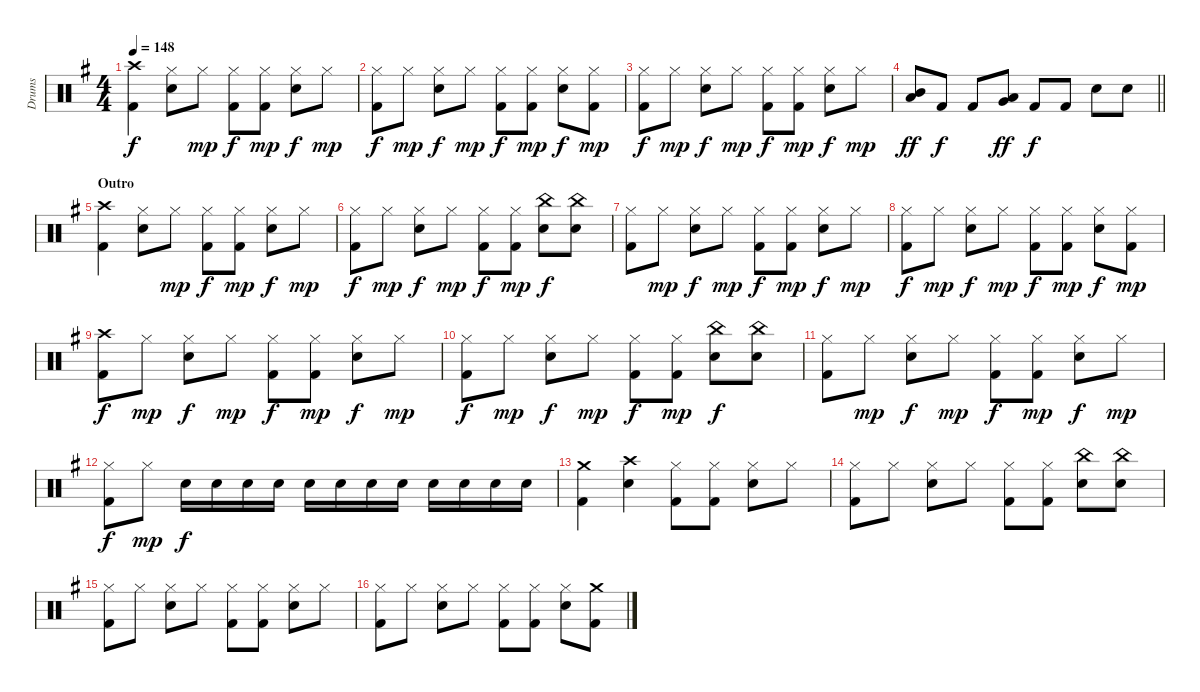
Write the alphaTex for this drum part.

\track ("Drums" "Drums") {instrument percussion}
\staff {score}
\articulation defaults
\ts (4 4)
\tempo 148
\clef neutral
\ks g
("Crash high (hit)" "Kick (hit) 2").4{dy f} ("Hi-Hat (closed)" "Electric Snare (hit)").8 "Hi-Hat (closed)".8{dy mp} ("Hi-Hat (closed)" "Kick (hit) 2").8{dy f} ("Hi-Hat (closed)" "Kick (hit) 2").8{dy mp} ("Hi-Hat (closed)" "Electric Snare (hit)").8{dy f} "Hi-Hat (closed)".8{dy mp} |
("Hi-Hat (closed)" "Kick (hit) 2").8{dy f} "Hi-Hat (closed)".8{dy mp} ("Hi-Hat (closed)" "Electric Snare (hit)").8{dy f} "Hi-Hat (closed)".8{dy mp} ("Hi-Hat (closed)" "Kick (hit) 2").8{dy f} ("Hi-Hat (closed)" "Kick (hit) 2").8{dy mp} ("Hi-Hat (closed)" "Electric Snare (hit)").8{dy f} ("Hi-Hat (closed)" "Kick (hit) 2").8{dy mp} |
("Hi-Hat (closed)" "Kick (hit) 2").8{dy f} "Hi-Hat (closed)".8{dy mp} ("Hi-Hat (closed)" "Electric Snare (hit)").8{dy f} "Hi-Hat (closed)".8{dy mp} ("Hi-Hat (closed)" "Kick (hit) 2").8{dy f} ("Hi-Hat (closed)" "Kick (hit) 2").8{dy mp} ("Hi-Hat (closed)" "Electric Snare (hit)").8{dy f} "Hi-Hat (closed)".8{dy mp} |
\barLineRight lightlight
("Low Tom (hit)" "Mid Tom (hit)").8{dy ff} "Kick (hit) 2".8{dy f} "Kick (hit) 2".8 ("Low Tom (hit)" "Very Low Tom (hit)").8{dy ff} "Kick (hit) 2".8{dy f} "Kick (hit) 2".8 "Electric Snare (hit)".8 "Electric Snare (hit)".8 |
\section ("" "Outro")
("Crash high (hit)" "Kick (hit) 2").4 ("Hi-Hat (closed)" "Electric Snare (hit)").8 "Hi-Hat (closed)".8{dy mp} ("Hi-Hat (closed)" "Kick (hit) 2").8{dy f} ("Hi-Hat (closed)" "Kick (hit) 2").8{dy mp} ("Hi-Hat (closed)" "Electric Snare (hit)").8{dy f} "Hi-Hat (closed)".8{dy mp} |
("Hi-Hat (closed)" "Kick (hit) 2").8{dy f} "Hi-Hat (closed)".8{dy mp} ("Hi-Hat (closed)" "Electric Snare (hit)").8{dy f} "Hi-Hat (closed)".8{dy mp} ("Hi-Hat (closed)" "Kick (hit) 2").8{dy f} ("Hi-Hat (closed)" "Kick (hit) 2").8{dy mp} ("China (hit)" "Electric Snare (hit)").8{dy f} ("China (hit)" "Electric Snare (hit)").8 |
("Hi-Hat (closed)" "Kick (hit) 2").8 "Hi-Hat (closed)".8{dy mp} ("Hi-Hat (closed)" "Electric Snare (hit)").8{dy f} "Hi-Hat (closed)".8{dy mp} ("Hi-Hat (closed)" "Kick (hit) 2").8{dy f} ("Hi-Hat (closed)" "Kick (hit) 2").8{dy mp} ("Hi-Hat (closed)" "Electric Snare (hit)").8{dy f} "Hi-Hat (closed)".8{dy mp} |
("Hi-Hat (closed)" "Kick (hit) 2").8{dy f} "Hi-Hat (closed)".8{dy mp} ("Hi-Hat (closed)" "Electric Snare (hit)").8{dy f} "Hi-Hat (closed)".8{dy mp} ("Hi-Hat (closed)" "Kick (hit) 2").8{dy f} ("Hi-Hat (closed)" "Kick (hit) 2").8{dy mp} ("Hi-Hat (closed)" "Electric Snare (hit)").8{dy f} ("Hi-Hat (closed)" "Kick (hit) 2").8{dy mp} |
("Crash high (hit)" "Kick (hit) 2").8{dy f} "Hi-Hat (closed)".8{dy mp} ("Hi-Hat (closed)" "Electric Snare (hit)").8{dy f} "Hi-Hat (closed)".8{dy mp} ("Hi-Hat (closed)" "Kick (hit) 2").8{dy f} ("Hi-Hat (closed)" "Kick (hit) 2").8{dy mp} ("Hi-Hat (closed)" "Electric Snare (hit)").8{dy f} "Hi-Hat (closed)".8{dy mp} |
("Hi-Hat (closed)" "Kick (hit) 2").8{dy f} "Hi-Hat (closed)".8{dy mp} ("Hi-Hat (closed)" "Electric Snare (hit)").8{dy f} "Hi-Hat (closed)".8{dy mp} ("Hi-Hat (closed)" "Kick (hit) 2").8{dy f} ("Hi-Hat (closed)" "Kick (hit) 2").8{dy mp} ("China (hit)" "Electric Snare (hit)").8{dy f} ("China (hit)" "Electric Snare (hit)").8 |
("Hi-Hat (closed)" "Kick (hit) 2").8 "Hi-Hat (closed)".8{dy mp} ("Hi-Hat (closed)" "Electric Snare (hit)").8{dy f} "Hi-Hat (closed)".8{dy mp} ("Hi-Hat (closed)" "Kick (hit) 2").8{dy f} ("Hi-Hat (closed)" "Kick (hit) 2").8{dy mp} ("Hi-Hat (closed)" "Electric Snare (hit)").8{dy f} "Hi-Hat (closed)".8{dy mp} |
("Hi-Hat (closed)" "Kick (hit) 2").8{dy f} "Hi-Hat (closed)".8{dy mp} "Electric Snare (hit)".16{dy f} "Electric Snare (hit)".16 "Electric Snare (hit)".16 "Electric Snare (hit)".16 "Electric Snare (hit)".16 "Electric Snare (hit)".16 "Electric Snare (hit)".16 "Electric Snare (hit)".16 "Electric Snare (hit)".16 "Electric Snare (hit)".16 "Electric Snare (hit)".16 "Electric Snare (hit)".16 |
("Crash medium (hit)" "Kick (hit) 2").4 ("Crash high (hit)" "Electric Snare (hit)").4 ("Hi-Hat (closed)" "Kick (hit) 2").8 ("Hi-Hat (closed)" "Kick (hit) 2").8 ("Hi-Hat (closed)" "Electric Snare (hit)").8 "Hi-Hat (closed)".8 |
("Hi-Hat (closed)" "Kick (hit) 2").8 "Hi-Hat (closed)".8 ("Hi-Hat (closed)" "Electric Snare (hit)").8 "Hi-Hat (closed)".8 ("Hi-Hat (closed)" "Kick (hit) 2").8 ("Hi-Hat (closed)" "Kick (hit) 2").8 ("China (hit)" "Electric Snare (hit)").8 ("China (hit)" "Electric Snare (hit)").8 |
("Hi-Hat (closed)" "Kick (hit) 2").8 "Hi-Hat (closed)".8 ("Hi-Hat (closed)" "Electric Snare (hit)").8 "Hi-Hat (closed)".8 ("Hi-Hat (closed)" "Kick (hit) 2").8 ("Hi-Hat (closed)" "Kick (hit) 2").8 ("Hi-Hat (closed)" "Electric Snare (hit)").8 "Hi-Hat (closed)".8 |
("Hi-Hat (closed)" "Kick (hit) 2").8 "Hi-Hat (closed)".8 ("Hi-Hat (closed)" "Electric Snare (hit)").8 "Hi-Hat (closed)".8 ("Hi-Hat (closed)" "Kick (hit) 2").8 ("Hi-Hat (closed)" "Kick (hit) 2").8 ("Hi-Hat (closed)" "Electric Snare (hit)").8 ("Crash medium (hit)" "Kick (hit) 2").8
